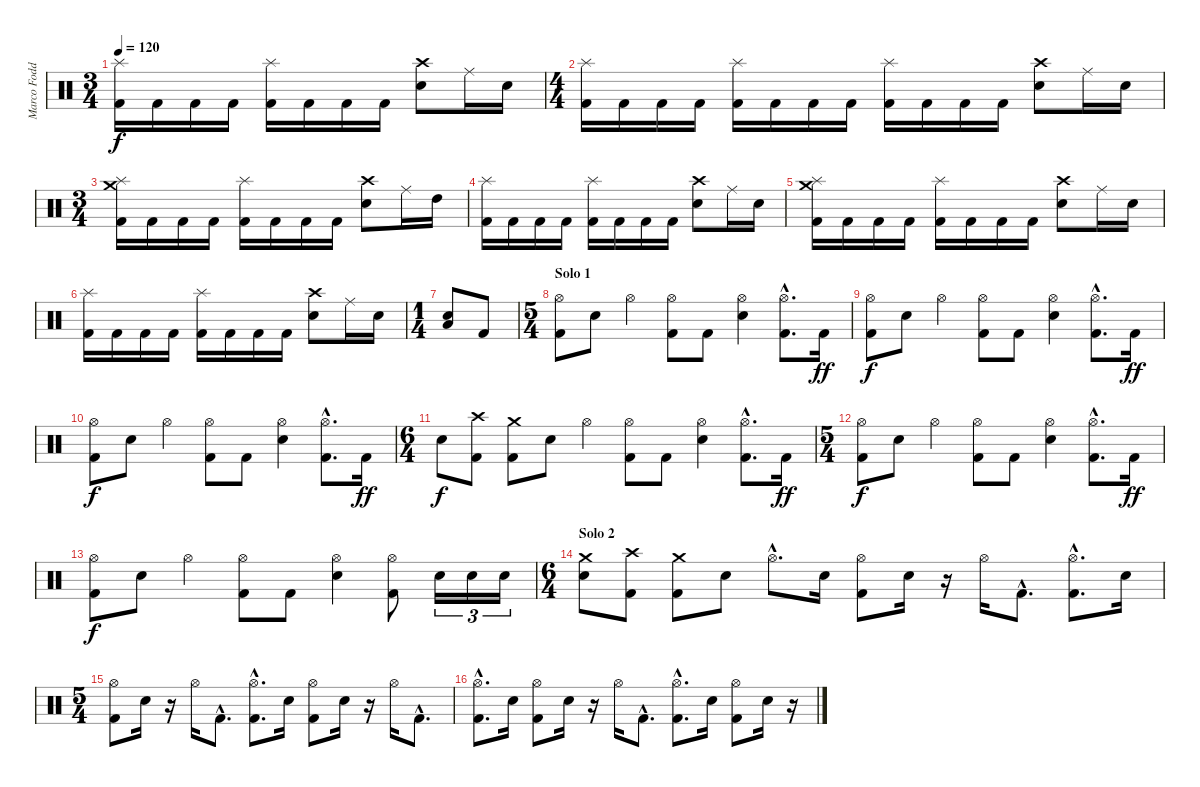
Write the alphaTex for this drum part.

\track ("Marco Foddis " "Marco Fodd") {instrument percussion}
\staff {score}
\articulation defaults
\ts (3 4)
\tempo 120
\clef neutral
\ks c
("Splash (hit)" "Kick (hit) 2").16{dy f} "Kick (hit) 2".16 "Kick (hit) 2".16 "Kick (hit) 2".16 ("Splash (hit)" "Kick (hit) 2").16 "Kick (hit) 2".16 "Kick (hit) 2".16 "Kick (hit) 2".16 ("Crash high (hit)" "Electric Snare (hit)").8 "Ride (middle)".16 "Electric Snare (hit)".16 |
\ts (4 4)
("Splash (hit)" "Kick (hit) 2").16 "Kick (hit) 2".16 "Kick (hit) 2".16 "Kick (hit) 2".16 ("Splash (hit)" "Kick (hit) 2").16 "Kick (hit) 2".16 "Kick (hit) 2".16 "Kick (hit) 2".16 ("Splash (hit)" "Kick (hit) 2").16 "Kick (hit) 2".16 "Kick (hit) 2".16 "Kick (hit) 2".16 ("Crash high (hit)" "Electric Snare (hit)").8 "Ride (middle)".16 "Electric Snare (hit)".16 |
\ts (3 4)
("Crash medium (hit)" "Splash (hit)" "Kick (hit) 2").16 "Kick (hit) 2".16 "Kick (hit) 2".16 "Kick (hit) 2".16 ("Splash (hit)" "Kick (hit) 2").16 "Kick (hit) 2".16 "Kick (hit) 2".16 "Kick (hit) 2".16 ("Crash high (hit)" "Electric Snare (hit)").8 "Ride (middle)".16 "High Tom (hit)".16 |
("Splash (hit)" "Kick (hit) 2").16 "Kick (hit) 2".16 "Kick (hit) 2".16 "Kick (hit) 2".16 ("Splash (hit)" "Kick (hit) 2").16 "Kick (hit) 2".16 "Kick (hit) 2".16 "Kick (hit) 2".16 ("Crash high (hit)" "Electric Snare (hit)").8 "Ride (middle)".16 "Electric Snare (hit)".16 |
("Crash medium (hit)" "Splash (hit)" "Kick (hit) 2").16 "Kick (hit) 2".16 "Kick (hit) 2".16 "Kick (hit) 2".16 ("Splash (hit)" "Kick (hit) 2").16 "Kick (hit) 2".16 "Kick (hit) 2".16 "Kick (hit) 2".16 ("Crash high (hit)" "Electric Snare (hit)").8 "Ride (middle)".16 "Electric Snare (hit)".16 |
("Splash (hit)" "Kick (hit) 2").16 "Kick (hit) 2".16 "Kick (hit) 2".16 "Kick (hit) 2".16 ("Splash (hit)" "Kick (hit) 2").16 "Kick (hit) 2".16 "Kick (hit) 2".16 "Kick (hit) 2".16 ("Crash high (hit)" "Electric Snare (hit)").8 "Ride (middle)".16 "Electric Snare (hit)".16 |
\ts (1 4)
("Low Floor Tom (hit)" "Electric Snare (hit)").8 "Kick (hit) 2".8 |
\ts (5 4)
\section ("" "Solo 1")
("Hi-Hat (open)" "Kick (hit) 2").8 "Electric Snare (hit)".8 "Hi-Hat (open)".4 ("Hi-Hat (open)" "Kick (hit) 2").8 "Kick (hit) 2".8 ("Hi-Hat (open)" "Electric Snare (hit)").4 ("Hi-Hat (open)"{hac} "Kick (hit) 2"{hac}).8{d} "Kick (hit) 2".16{dy ff} |
("Hi-Hat (open)" "Kick (hit) 2").8{dy f} "Electric Snare (hit)".8 "Hi-Hat (open)".4 ("Hi-Hat (open)" "Kick (hit) 2").8 "Kick (hit) 2".8 ("Hi-Hat (open)" "Electric Snare (hit)").4 ("Hi-Hat (open)"{hac} "Kick (hit) 2"{hac}).8{d} "Kick (hit) 2".16{dy ff} |
("Hi-Hat (open)" "Kick (hit) 2").8{dy f} "Electric Snare (hit)".8 "Hi-Hat (open)".4 ("Hi-Hat (open)" "Kick (hit) 2").8 "Kick (hit) 2".8 ("Hi-Hat (open)" "Electric Snare (hit)").4 ("Hi-Hat (open)"{hac} "Kick (hit) 2"{hac}).8{d} "Kick (hit) 2".16{dy ff} |
\ts (6 4)
"Electric Snare (hit)".8{dy f} ("Crash high (hit)" "Kick (hit) 2").8 ("Crash medium (hit)" "Kick (hit) 2").8 "Electric Snare (hit)".8 "Hi-Hat (open)".4 ("Hi-Hat (open)" "Kick (hit) 2").8 "Kick (hit) 2".8 ("Hi-Hat (open)" "Electric Snare (hit)").4 ("Hi-Hat (open)"{hac} "Kick (hit) 2"{hac}).8{d} "Kick (hit) 2".16{dy ff} |
\ts (5 4)
("Hi-Hat (open)" "Kick (hit) 2").8{dy f} "Electric Snare (hit)".8 "Hi-Hat (open)".4 ("Hi-Hat (open)" "Kick (hit) 2").8 "Kick (hit) 2".8 ("Hi-Hat (open)" "Electric Snare (hit)").4 ("Hi-Hat (open)"{hac} "Kick (hit) 2"{hac}).8{d} "Kick (hit) 2".16{dy ff} |
("Hi-Hat (open)" "Kick (hit) 2").8{dy f} "Electric Snare (hit)".8 "Hi-Hat (open)".4 ("Hi-Hat (open)" "Kick (hit) 2").8 "Kick (hit) 2".8 ("Hi-Hat (open)" "Electric Snare (hit)").4 ("Hi-Hat (open)" "Kick (hit) 2").8 "Electric Snare (hit)".16{tu (3 2)} "Electric Snare (hit)".16{tu (3 2)} "Electric Snare (hit)".16{tu (3 2)} |
\ts (6 4)
\section ("" "Solo 2 ")
("Crash medium (hit)" "Electric Snare (hit)").8 ("Crash high (hit)" "Kick (hit) 2").8 ("Crash medium (hit)" "Kick (hit) 2").8 "Electric Snare (hit)".8 "Hi-Hat (open)"{hac}.8{d} "Electric Snare (hit)".16 ("Hi-Hat (open)" "Kick (hit) 2").8 "Electric Snare (hit)".16 r.16 "Hi-Hat (open)".16 "Kick (hit) 2"{hac}.8{d} ("Hi-Hat (open)"{hac} "Kick (hit) 2"{hac}).8{d} "Electric Snare (hit)".16 |
\ts (5 4)
("Hi-Hat (open)" "Kick (hit) 2").8 "Electric Snare (hit)".16 r.16 "Hi-Hat (open)".16 "Kick (hit) 2"{hac}.8{d} ("Hi-Hat (open)"{hac} "Kick (hit) 2"{hac}).8{d} "Electric Snare (hit)".16 ("Hi-Hat (open)" "Kick (hit) 2").8 "Electric Snare (hit)".16 r.16 "Hi-Hat (open)".16 "Kick (hit) 2"{hac}.8{d} |
("Hi-Hat (open)"{hac} "Kick (hit) 2"{hac}).8{d} "Electric Snare (hit)".16 ("Hi-Hat (open)" "Kick (hit) 2").8 "Electric Snare (hit)".16 r.16 "Hi-Hat (open)".16 "Kick (hit) 2"{hac}.8{d} ("Hi-Hat (open)"{hac} "Kick (hit) 2"{hac}).8{d} "Electric Snare (hit)".16 ("Hi-Hat (open)" "Kick (hit) 2").8 "Electric Snare (hit)".16 r.16
